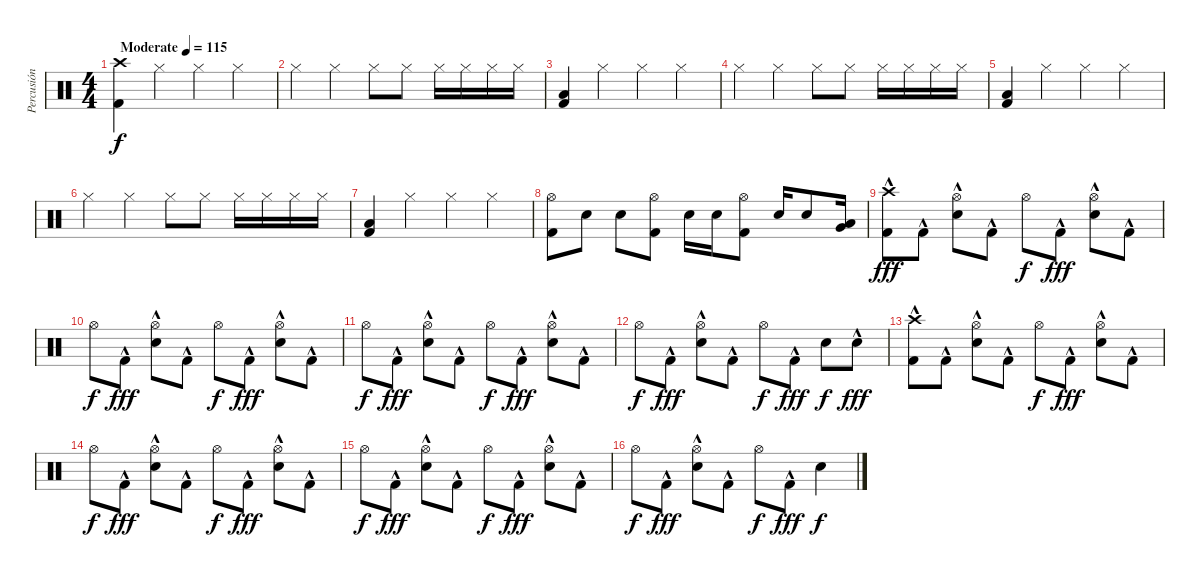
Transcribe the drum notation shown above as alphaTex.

\track ("Percusión" "Percusión") {instrument percussion}
\staff {score}
\articulation defaults
\ts (4 4)
\tempo (115 "Moderate")
\clef neutral
\ks c
("Crash high (hit)" "Kick (hit) 2").4{dy f} "Hi-Hat (closed)".4 "Hi-Hat (closed)".4 "Hi-Hat (closed)".4 |
"Hi-Hat (closed)".4 "Hi-Hat (closed)".4 "Hi-Hat (closed)".8 "Hi-Hat (closed)".8 "Hi-Hat (closed)".16 "Hi-Hat (closed)".16 "Hi-Hat (closed)".16 "Hi-Hat (closed)".16 |
("Low Floor Tom (hit)" "Kick (hit) 2").4 "Hi-Hat (closed)".4 "Hi-Hat (closed)".4 "Hi-Hat (closed)".4 |
"Hi-Hat (closed)".4 "Hi-Hat (closed)".4 "Hi-Hat (closed)".8 "Hi-Hat (closed)".8 "Hi-Hat (closed)".16 "Hi-Hat (closed)".16 "Hi-Hat (closed)".16 "Hi-Hat (closed)".16 |
("Low Floor Tom (hit)" "Kick (hit) 2").4 "Hi-Hat (closed)".4 "Hi-Hat (closed)".4 "Hi-Hat (closed)".4 |
"Hi-Hat (closed)".4 "Hi-Hat (closed)".4 "Hi-Hat (closed)".8 "Hi-Hat (closed)".8 "Hi-Hat (closed)".16 "Hi-Hat (closed)".16 "Hi-Hat (closed)".16 "Hi-Hat (closed)".16 |
("Low Floor Tom (hit)" "Kick (hit) 2").4 "Hi-Hat (closed)".4 "Hi-Hat (closed)".4 "Hi-Hat (closed)".4 |
("Kick (hit) 2" "Hi-Hat (open)").8 "Snare (hit) 2".8 "Snare (hit) 2".8 ("Kick (hit) 2" "Hi-Hat (open)").8 "Snare (hit) 2".16 "Snare (hit) 2".16 ("Kick (hit) 2" "Hi-Hat (open)").8 "Snare (hit) 2".16 "Snare (hit) 2".8 ("Very Low Tom (hit)" "Low Tom (hit)").16 |
("Crash high (hit)" "Kick (hit) 2"{hac}).8{dy fff} "Kick (hit) 2"{hac}.8 ("Hi-Hat (open)"{hac} "Snare (hit) 2").8 "Kick (hit) 2"{hac}.8 "Hi-Hat (open)".8{dy f} "Kick (hit) 2"{hac}.8{dy fff} ("Hi-Hat (open)"{hac} "Snare (hit) 2").8 "Kick (hit) 2"{hac}.8 |
"Hi-Hat (open)".8{dy f} "Kick (hit) 2"{hac}.8{dy fff} ("Hi-Hat (open)"{hac} "Snare (hit) 2").8 "Kick (hit) 2"{hac}.8 "Hi-Hat (open)".8{dy f} "Kick (hit) 2"{hac}.8{dy fff} ("Hi-Hat (open)"{hac} "Snare (hit) 2").8 "Kick (hit) 2"{hac}.8 |
"Hi-Hat (open)".8{dy f} "Kick (hit) 2"{hac}.8{dy fff} ("Hi-Hat (open)"{hac} "Snare (hit) 2").8 "Kick (hit) 2"{hac}.8 "Hi-Hat (open)".8{dy f} "Kick (hit) 2"{hac}.8{dy fff} ("Hi-Hat (open)"{hac} "Snare (hit) 2").8 "Kick (hit) 2"{hac}.8 |
"Hi-Hat (open)".8{dy f} "Kick (hit) 2"{hac}.8{dy fff} ("Hi-Hat (open)"{hac} "Snare (hit) 2").8 "Kick (hit) 2"{hac}.8 "Hi-Hat (open)".8{dy f} "Kick (hit) 2"{hac}.8{dy fff} "Snare (hit) 2".8{dy f} "Snare (hit) 2"{hac}.8{dy fff} |
("Crash high (hit)" "Kick (hit) 2"{hac}).8 "Kick (hit) 2"{hac}.8 ("Hi-Hat (open)"{hac} "Snare (hit) 2").8 "Kick (hit) 2"{hac}.8 "Hi-Hat (open)".8{dy f} "Kick (hit) 2"{hac}.8{dy fff} ("Hi-Hat (open)"{hac} "Snare (hit) 2").8 "Kick (hit) 2"{hac}.8 |
"Hi-Hat (open)".8{dy f} "Kick (hit) 2"{hac}.8{dy fff} ("Hi-Hat (open)"{hac} "Snare (hit) 2").8 "Kick (hit) 2"{hac}.8 "Hi-Hat (open)".8{dy f} "Kick (hit) 2"{hac}.8{dy fff} ("Hi-Hat (open)"{hac} "Snare (hit) 2").8 "Kick (hit) 2"{hac}.8 |
"Hi-Hat (open)".8{dy f} "Kick (hit) 2"{hac}.8{dy fff} ("Hi-Hat (open)"{hac} "Snare (hit) 2").8 "Kick (hit) 2"{hac}.8 "Hi-Hat (open)".8{dy f} "Kick (hit) 2"{hac}.8{dy fff} ("Hi-Hat (open)"{hac} "Snare (hit) 2").8 "Kick (hit) 2"{hac}.8 |
"Hi-Hat (open)".8{dy f} "Kick (hit) 2"{hac}.8{dy fff} ("Hi-Hat (open)"{hac} "Snare (hit) 2").8 "Kick (hit) 2"{hac}.8 "Hi-Hat (open)".8{dy f} "Kick (hit) 2"{hac}.8{dy fff} "Snare (hit) 2".4{dy f}
